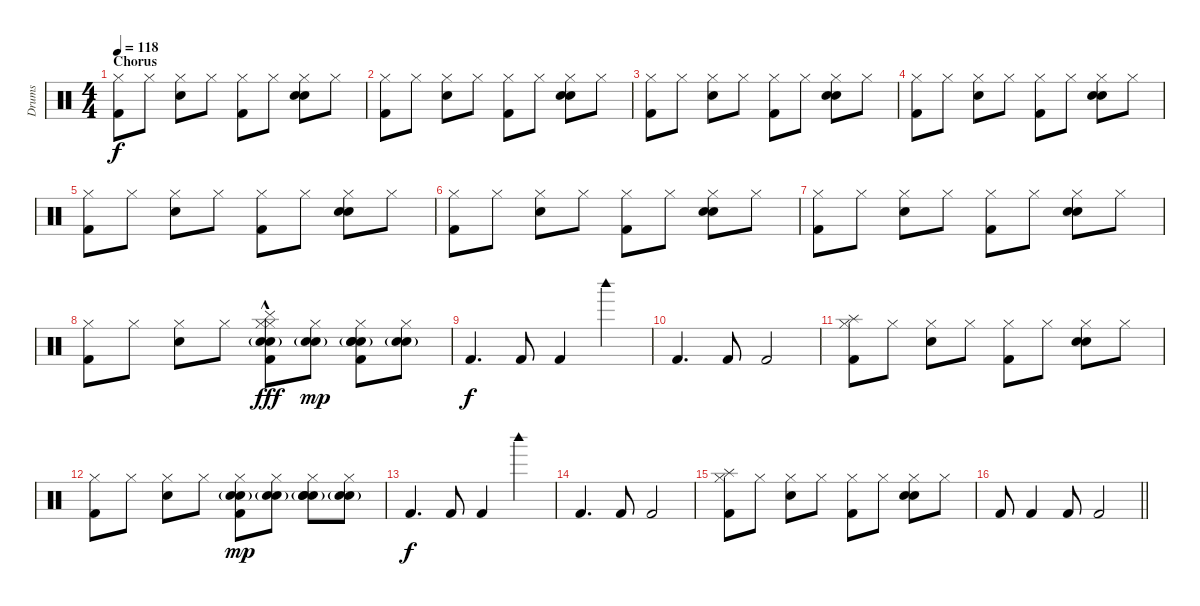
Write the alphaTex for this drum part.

\track ("Drums" "Drums") {instrument percussion}
\staff {score}
\articulation defaults
\ts (4 4)
\section ("" "Chorus")
\tempo 118
\clef neutral
\ks c
("Hi-Hat (closed)" "Kick (hit) 2").8{dy f} "Hi-Hat (closed)".8 ("Hi-Hat (closed)" "Snare (hit) 2").8 "Hi-Hat (closed)".8 ("Hi-Hat (closed)" "Kick (hit) 2").8 "Hi-Hat (closed)".8 ("Hi-Hat (closed)" "Hand Clap (hit)" "Snare (hit) 2").8 "Hi-Hat (closed)".8 |
("Hi-Hat (closed)" "Kick (hit) 2").8 "Hi-Hat (closed)".8 ("Hi-Hat (closed)" "Snare (hit) 2").8 "Hi-Hat (closed)".8 ("Hi-Hat (closed)" "Kick (hit) 2").8 "Hi-Hat (closed)".8 ("Hi-Hat (closed)" "Hand Clap (hit)" "Snare (hit) 2").8 "Hi-Hat (closed)".8 |
("Hi-Hat (closed)" "Kick (hit) 2").8 "Hi-Hat (closed)".8 ("Hi-Hat (closed)" "Snare (hit) 2").8 "Hi-Hat (closed)".8 ("Hi-Hat (closed)" "Kick (hit) 2").8 "Hi-Hat (closed)".8 ("Hi-Hat (closed)" "Hand Clap (hit)" "Snare (hit) 2").8 "Hi-Hat (closed)".8 |
("Hi-Hat (closed)" "Kick (hit) 2").8 "Hi-Hat (closed)".8 ("Hi-Hat (closed)" "Snare (hit) 2").8 "Hi-Hat (closed)".8 ("Hi-Hat (closed)" "Kick (hit) 2").8 "Hi-Hat (closed)".8 ("Hi-Hat (closed)" "Hand Clap (hit)" "Snare (hit) 2").8 "Hi-Hat (closed)".8 |
("Hi-Hat (closed)" "Kick (hit) 2").8 "Hi-Hat (closed)".8 ("Hi-Hat (closed)" "Snare (hit) 2").8 "Hi-Hat (closed)".8 ("Hi-Hat (closed)" "Kick (hit) 2").8 "Hi-Hat (closed)".8 ("Hi-Hat (closed)" "Hand Clap (hit)" "Snare (hit) 2").8 "Hi-Hat (closed)".8 |
("Hi-Hat (closed)" "Kick (hit) 2").8 "Hi-Hat (closed)".8 ("Hi-Hat (closed)" "Snare (hit) 2").8 "Hi-Hat (closed)".8 ("Hi-Hat (closed)" "Kick (hit) 2").8 "Hi-Hat (closed)".8 ("Hi-Hat (closed)" "Hand Clap (hit)" "Snare (hit) 2").8 "Hi-Hat (closed)".8 |
("Hi-Hat (closed)" "Kick (hit) 2").8 "Hi-Hat (closed)".8 ("Hi-Hat (closed)" "Snare (hit) 2").8 "Hi-Hat (closed)".8 ("Hi-Hat (closed)" "Kick (hit) 2").8 "Hi-Hat (closed)".8 ("Hi-Hat (closed)" "Hand Clap (hit)" "Snare (hit) 2").8 "Hi-Hat (closed)".8 |
("Hi-Hat (closed)" "Kick (hit) 2").8 "Hi-Hat (closed)".8 ("Hi-Hat (closed)" "Snare (hit) 2").8 "Hi-Hat (closed)".8 ("Hi-Hat (closed)" "Snare (hit) 2"{g} "Hand Clap (hit)" "Hi-Hat (closed)"{hac} "Cymbal (hit)" "Kick (hit) 2").8{dy fff} ("Hi-Hat (closed)" "Snare (hit) 2"{g} "Hand Clap (hit)").8{dy mp} ("Hi-Hat (closed)" "Snare (hit) 2"{g} "Hand Clap (hit)" "Snare (hit) 2" "Kick (hit) 2").8 ("Hi-Hat (closed)" "Snare (hit) 2"{g} "Hand Clap (hit)").8 |
"Kick (hit) 2".4{d dy f} "Kick (hit) 2".8 "Kick (hit) 2".4 "Woodblock high (hit)".4 |
"Kick (hit) 2".4{d} "Kick (hit) 2".8 "Kick (hit) 2".2 |
("Splash (hit)" "Hi-Hat (closed)" "Kick (hit) 2").8 "Hi-Hat (closed)".8 ("Hi-Hat (closed)" "Snare (hit) 2").8 "Hi-Hat (closed)".8 ("Hi-Hat (closed)" "Kick (hit) 2").8 "Hi-Hat (closed)".8 ("Hi-Hat (closed)" "Hand Clap (hit)" "Snare (hit) 2").8 "Hi-Hat (closed)".8 |
("Hi-Hat (closed)" "Kick (hit) 2").8 "Hi-Hat (closed)".8 ("Hi-Hat (closed)" "Snare (hit) 2").8 "Hi-Hat (closed)".8 ("Hi-Hat (closed)" "Snare (hit) 2"{g} "Hand Clap (hit)" "Kick (hit) 2").8{dy mp} ("Hi-Hat (closed)" "Snare (hit) 2"{g} "Hand Clap (hit)").8 ("Hi-Hat (closed)" "Snare (hit) 2"{g} "Hand Clap (hit)" "Snare (hit) 2").8 ("Hi-Hat (closed)" "Snare (hit) 2"{g} "Hand Clap (hit)").8 |
"Kick (hit) 2".4{d dy f} "Kick (hit) 2".8 "Kick (hit) 2".4 "Woodblock high (hit)".4 |
"Kick (hit) 2".4{d} "Kick (hit) 2".8 "Kick (hit) 2".2 |
("Splash (hit)" "Hi-Hat (closed)" "Kick (hit) 2").8 "Hi-Hat (closed)".8 ("Hi-Hat (closed)" "Snare (hit) 2").8 "Hi-Hat (closed)".8 ("Hi-Hat (closed)" "Kick (hit) 2").8 "Hi-Hat (closed)".8 ("Hi-Hat (closed)" "Hand Clap (hit)" "Snare (hit) 2").8 "Hi-Hat (closed)".8 |
\barLineRight lightlight "Kick (hit) 2".8 "Kick (hit) 2".4 "Kick (hit) 2".8 "Kick (hit) 2".2
